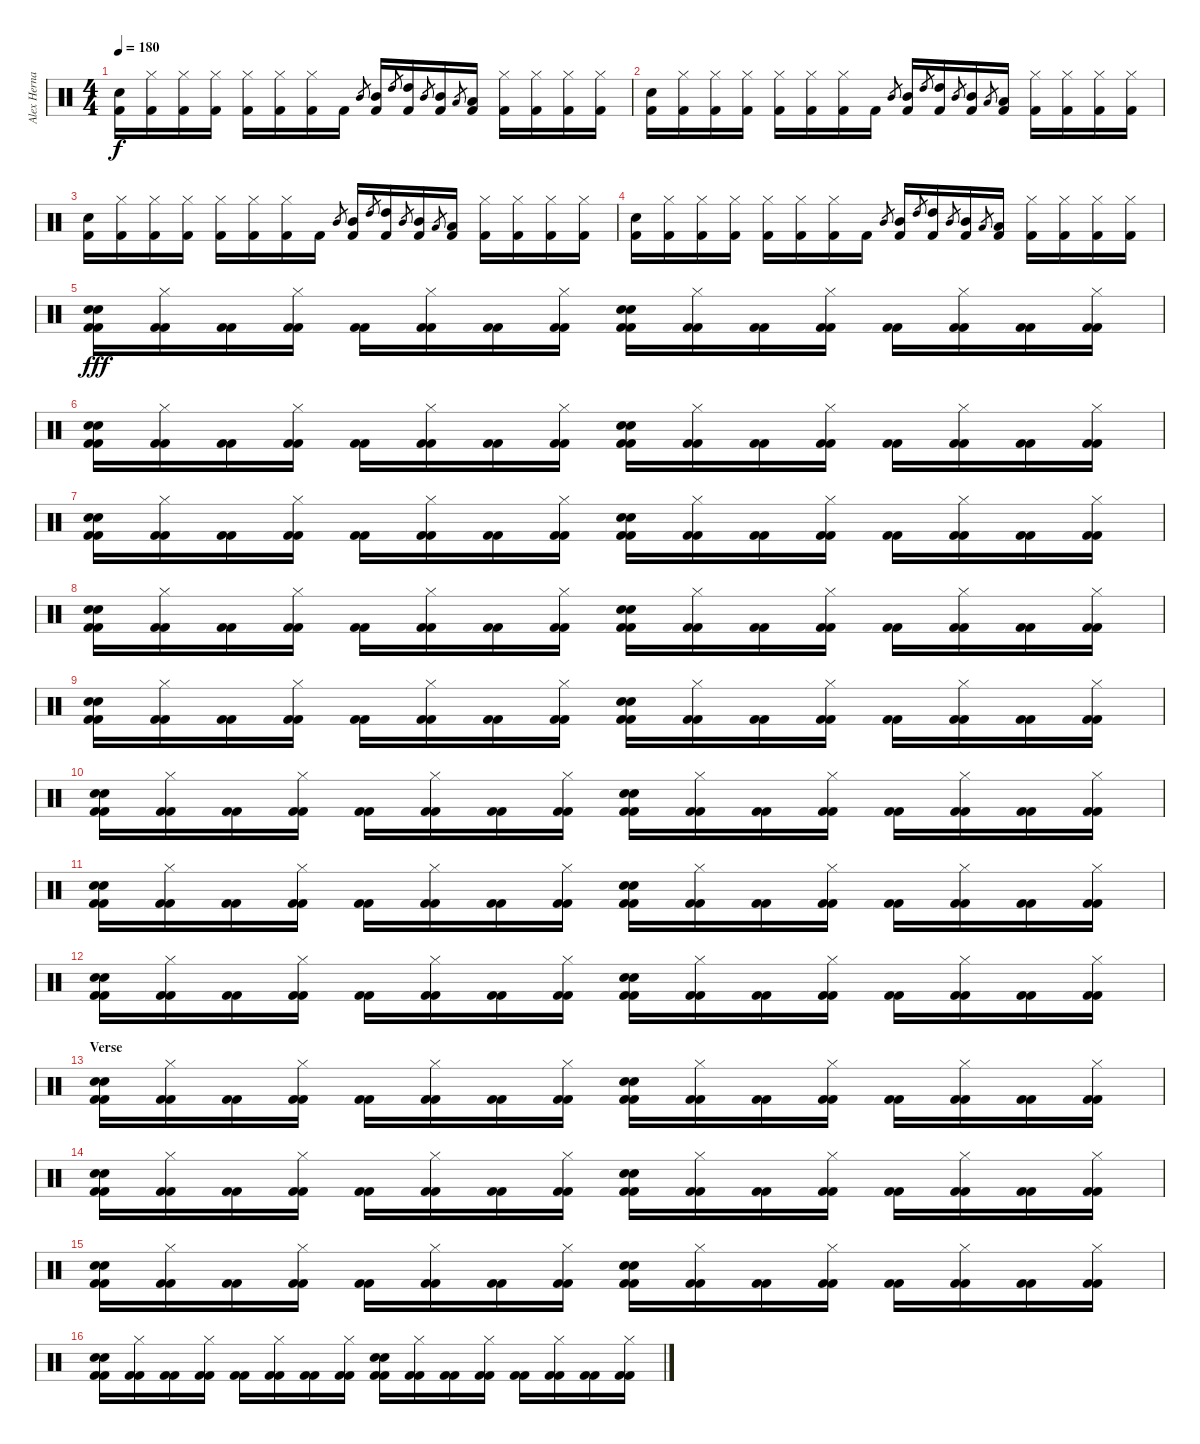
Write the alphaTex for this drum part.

\track ("Alex Hernandez" "Alex Herna") {instrument percussion}
\staff {score}
\articulation defaults
\ts (4 4)
\tempo 180
\clef neutral
\ks c
("Snare (hit) 2" "Kick (hit) 2").16{dy f} ("Hi-Hat (closed)" "Kick (hit) 2").16 ("Hi-Hat (closed)" "Kick (hit) 2").16 ("Hi-Hat (closed)" "Kick (hit) 2").16 ("Hi-Hat (closed)" "Kick (hit) 2").16 ("Hi-Hat (closed)" "Kick (hit) 2").16 ("Hi-Hat (closed)" "Kick (hit) 2").16 "Kick (hit) 2".16 "Mid Tom (hit)".8{gr} ("Mid Tom (hit)" "Kick (hit) 2").16 "High Tom (hit)".8{gr} ("High Tom (hit)" "Kick (hit) 2").16 "Mid Tom (hit)".8{gr} ("Mid Tom (hit)" "Kick (hit) 2").16 "Low Tom (hit)".8{gr} ("Low Tom (hit)" "Kick (hit) 2").16 ("Hi-Hat (closed)" "Kick (hit) 2").16 ("Hi-Hat (closed)" "Kick (hit) 2").16 ("Hi-Hat (closed)" "Kick (hit) 2").16 ("Hi-Hat (closed)" "Kick (hit) 2").16 |
("Snare (hit) 2" "Kick (hit) 2").16 ("Hi-Hat (closed)" "Kick (hit) 2").16 ("Hi-Hat (closed)" "Kick (hit) 2").16 ("Hi-Hat (closed)" "Kick (hit) 2").16 ("Hi-Hat (closed)" "Kick (hit) 2").16 ("Hi-Hat (closed)" "Kick (hit) 2").16 ("Hi-Hat (closed)" "Kick (hit) 2").16 "Kick (hit) 2".16 "Mid Tom (hit)".8{gr} ("Mid Tom (hit)" "Kick (hit) 2").16 "High Tom (hit)".8{gr} ("High Tom (hit)" "Kick (hit) 2").16 "Mid Tom (hit)".8{gr} ("Mid Tom (hit)" "Kick (hit) 2").16 "Low Tom (hit)".8{gr} ("Low Tom (hit)" "Kick (hit) 2").16 ("Hi-Hat (closed)" "Kick (hit) 2").16 ("Hi-Hat (closed)" "Kick (hit) 2").16 ("Hi-Hat (closed)" "Kick (hit) 2").16 ("Hi-Hat (closed)" "Kick (hit) 2").16 |
("Snare (hit) 2" "Kick (hit) 2").16 ("Hi-Hat (closed)" "Kick (hit) 2").16 ("Hi-Hat (closed)" "Kick (hit) 2").16 ("Hi-Hat (closed)" "Kick (hit) 2").16 ("Hi-Hat (closed)" "Kick (hit) 2").16 ("Hi-Hat (closed)" "Kick (hit) 2").16 ("Hi-Hat (closed)" "Kick (hit) 2").16 "Kick (hit) 2".16 "Mid Tom (hit)".8{gr} ("Mid Tom (hit)" "Kick (hit) 2").16 "High Tom (hit)".8{gr} ("High Tom (hit)" "Kick (hit) 2").16 "Mid Tom (hit)".8{gr} ("Mid Tom (hit)" "Kick (hit) 2").16 "Low Tom (hit)".8{gr} ("Low Tom (hit)" "Kick (hit) 2").16 ("Hi-Hat (closed)" "Kick (hit) 2").16 ("Hi-Hat (closed)" "Kick (hit) 2").16 ("Hi-Hat (closed)" "Kick (hit) 2").16 ("Hi-Hat (closed)" "Kick (hit) 2").16 |
("Snare (hit) 2" "Kick (hit) 2").16 ("Hi-Hat (closed)" "Kick (hit) 2").16 ("Hi-Hat (closed)" "Kick (hit) 2").16 ("Hi-Hat (closed)" "Kick (hit) 2").16 ("Hi-Hat (closed)" "Kick (hit) 2").16 ("Hi-Hat (closed)" "Kick (hit) 2").16 ("Hi-Hat (closed)" "Kick (hit) 2").16 "Kick (hit) 2".16 "Mid Tom (hit)".8{gr} ("Mid Tom (hit)" "Kick (hit) 2").16 "High Tom (hit)".8{gr} ("High Tom (hit)" "Kick (hit) 2").16 "Mid Tom (hit)".8{gr} ("Mid Tom (hit)" "Kick (hit) 2").16 "Low Tom (hit)".8{gr} ("Low Tom (hit)" "Kick (hit) 2").16 ("Hi-Hat (closed)" "Kick (hit) 2").16 ("Hi-Hat (closed)" "Kick (hit) 2").16 ("Hi-Hat (closed)" "Kick (hit) 2").16 ("Hi-Hat (closed)" "Kick (hit) 2").16 |
("Snare (hit) 2" "Snare (hit) 2" "Kick (hit) 2" "Kick (hit) 2").16{dy fff} ("Hi-Hat (closed)" "Kick (hit) 2" "Kick (hit) 2").16 ("Kick (hit) 2" "Kick (hit) 2").16 ("Hi-Hat (closed)" "Kick (hit) 2" "Kick (hit) 2").16 ("Kick (hit) 2" "Kick (hit) 2").16 ("Hi-Hat (closed)" "Kick (hit) 2" "Kick (hit) 2").16 ("Kick (hit) 2" "Kick (hit) 2").16 ("Hi-Hat (closed)" "Kick (hit) 2" "Kick (hit) 2").16 ("Snare (hit) 2" "Snare (hit) 2" "Kick (hit) 2" "Kick (hit) 2").16 ("Hi-Hat (closed)" "Kick (hit) 2" "Kick (hit) 2").16 ("Kick (hit) 2" "Kick (hit) 2").16 ("Hi-Hat (closed)" "Kick (hit) 2" "Kick (hit) 2").16 ("Kick (hit) 2" "Kick (hit) 2").16 ("Hi-Hat (closed)" "Kick (hit) 2" "Kick (hit) 2").16 ("Kick (hit) 2" "Kick (hit) 2").16 ("Hi-Hat (closed)" "Kick (hit) 2" "Kick (hit) 2").16 |
("Snare (hit) 2" "Snare (hit) 2" "Kick (hit) 2" "Kick (hit) 2").16 ("Hi-Hat (closed)" "Kick (hit) 2" "Kick (hit) 2").16 ("Kick (hit) 2" "Kick (hit) 2").16 ("Hi-Hat (closed)" "Kick (hit) 2" "Kick (hit) 2").16 ("Kick (hit) 2" "Kick (hit) 2").16 ("Hi-Hat (closed)" "Kick (hit) 2" "Kick (hit) 2").16 ("Kick (hit) 2" "Kick (hit) 2").16 ("Hi-Hat (closed)" "Kick (hit) 2" "Kick (hit) 2").16 ("Snare (hit) 2" "Snare (hit) 2" "Kick (hit) 2" "Kick (hit) 2").16 ("Hi-Hat (closed)" "Kick (hit) 2" "Kick (hit) 2").16 ("Kick (hit) 2" "Kick (hit) 2").16 ("Hi-Hat (closed)" "Kick (hit) 2" "Kick (hit) 2").16 ("Kick (hit) 2" "Kick (hit) 2").16 ("Hi-Hat (closed)" "Kick (hit) 2" "Kick (hit) 2").16 ("Kick (hit) 2" "Kick (hit) 2").16 ("Hi-Hat (closed)" "Kick (hit) 2" "Kick (hit) 2").16 |
("Snare (hit) 2" "Snare (hit) 2" "Kick (hit) 2" "Kick (hit) 2").16 ("Hi-Hat (closed)" "Kick (hit) 2" "Kick (hit) 2").16 ("Kick (hit) 2" "Kick (hit) 2").16 ("Hi-Hat (closed)" "Kick (hit) 2" "Kick (hit) 2").16 ("Kick (hit) 2" "Kick (hit) 2").16 ("Hi-Hat (closed)" "Kick (hit) 2" "Kick (hit) 2").16 ("Kick (hit) 2" "Kick (hit) 2").16 ("Hi-Hat (closed)" "Kick (hit) 2" "Kick (hit) 2").16 ("Snare (hit) 2" "Snare (hit) 2" "Kick (hit) 2" "Kick (hit) 2").16 ("Hi-Hat (closed)" "Kick (hit) 2" "Kick (hit) 2").16 ("Kick (hit) 2" "Kick (hit) 2").16 ("Hi-Hat (closed)" "Kick (hit) 2" "Kick (hit) 2").16 ("Kick (hit) 2" "Kick (hit) 2").16 ("Hi-Hat (closed)" "Kick (hit) 2" "Kick (hit) 2").16 ("Kick (hit) 2" "Kick (hit) 2").16 ("Hi-Hat (closed)" "Kick (hit) 2" "Kick (hit) 2").16 |
("Snare (hit) 2" "Snare (hit) 2" "Kick (hit) 2" "Kick (hit) 2").16 ("Hi-Hat (closed)" "Kick (hit) 2" "Kick (hit) 2").16 ("Kick (hit) 2" "Kick (hit) 2").16 ("Hi-Hat (closed)" "Kick (hit) 2" "Kick (hit) 2").16 ("Kick (hit) 2" "Kick (hit) 2").16 ("Hi-Hat (closed)" "Kick (hit) 2" "Kick (hit) 2").16 ("Kick (hit) 2" "Kick (hit) 2").16 ("Hi-Hat (closed)" "Kick (hit) 2" "Kick (hit) 2").16 ("Snare (hit) 2" "Snare (hit) 2" "Kick (hit) 2" "Kick (hit) 2").16 ("Hi-Hat (closed)" "Kick (hit) 2" "Kick (hit) 2").16 ("Kick (hit) 2" "Kick (hit) 2").16 ("Hi-Hat (closed)" "Kick (hit) 2" "Kick (hit) 2").16 ("Kick (hit) 2" "Kick (hit) 2").16 ("Hi-Hat (closed)" "Kick (hit) 2" "Kick (hit) 2").16 ("Kick (hit) 2" "Kick (hit) 2").16 ("Hi-Hat (closed)" "Kick (hit) 2" "Kick (hit) 2").16 |
("Snare (hit) 2" "Snare (hit) 2" "Kick (hit) 2" "Kick (hit) 2").16 ("Hi-Hat (closed)" "Kick (hit) 2" "Kick (hit) 2").16 ("Kick (hit) 2" "Kick (hit) 2").16 ("Hi-Hat (closed)" "Kick (hit) 2" "Kick (hit) 2").16 ("Kick (hit) 2" "Kick (hit) 2").16 ("Hi-Hat (closed)" "Kick (hit) 2" "Kick (hit) 2").16 ("Kick (hit) 2" "Kick (hit) 2").16 ("Hi-Hat (closed)" "Kick (hit) 2" "Kick (hit) 2").16 ("Snare (hit) 2" "Snare (hit) 2" "Kick (hit) 2" "Kick (hit) 2").16 ("Hi-Hat (closed)" "Kick (hit) 2" "Kick (hit) 2").16 ("Kick (hit) 2" "Kick (hit) 2").16 ("Hi-Hat (closed)" "Kick (hit) 2" "Kick (hit) 2").16 ("Kick (hit) 2" "Kick (hit) 2").16 ("Hi-Hat (closed)" "Kick (hit) 2" "Kick (hit) 2").16 ("Kick (hit) 2" "Kick (hit) 2").16 ("Hi-Hat (closed)" "Kick (hit) 2" "Kick (hit) 2").16 |
("Snare (hit) 2" "Snare (hit) 2" "Kick (hit) 2" "Kick (hit) 2").16 ("Hi-Hat (closed)" "Kick (hit) 2" "Kick (hit) 2").16 ("Kick (hit) 2" "Kick (hit) 2").16 ("Hi-Hat (closed)" "Kick (hit) 2" "Kick (hit) 2").16 ("Kick (hit) 2" "Kick (hit) 2").16 ("Hi-Hat (closed)" "Kick (hit) 2" "Kick (hit) 2").16 ("Kick (hit) 2" "Kick (hit) 2").16 ("Hi-Hat (closed)" "Kick (hit) 2" "Kick (hit) 2").16 ("Snare (hit) 2" "Snare (hit) 2" "Kick (hit) 2" "Kick (hit) 2").16 ("Hi-Hat (closed)" "Kick (hit) 2" "Kick (hit) 2").16 ("Kick (hit) 2" "Kick (hit) 2").16 ("Hi-Hat (closed)" "Kick (hit) 2" "Kick (hit) 2").16 ("Kick (hit) 2" "Kick (hit) 2").16 ("Hi-Hat (closed)" "Kick (hit) 2" "Kick (hit) 2").16 ("Kick (hit) 2" "Kick (hit) 2").16 ("Hi-Hat (closed)" "Kick (hit) 2" "Kick (hit) 2").16 |
("Snare (hit) 2" "Snare (hit) 2" "Kick (hit) 2" "Kick (hit) 2").16 ("Hi-Hat (closed)" "Kick (hit) 2" "Kick (hit) 2").16 ("Kick (hit) 2" "Kick (hit) 2").16 ("Hi-Hat (closed)" "Kick (hit) 2" "Kick (hit) 2").16 ("Kick (hit) 2" "Kick (hit) 2").16 ("Hi-Hat (closed)" "Kick (hit) 2" "Kick (hit) 2").16 ("Kick (hit) 2" "Kick (hit) 2").16 ("Hi-Hat (closed)" "Kick (hit) 2" "Kick (hit) 2").16 ("Snare (hit) 2" "Snare (hit) 2" "Kick (hit) 2" "Kick (hit) 2").16 ("Hi-Hat (closed)" "Kick (hit) 2" "Kick (hit) 2").16 ("Kick (hit) 2" "Kick (hit) 2").16 ("Hi-Hat (closed)" "Kick (hit) 2" "Kick (hit) 2").16 ("Kick (hit) 2" "Kick (hit) 2").16 ("Hi-Hat (closed)" "Kick (hit) 2" "Kick (hit) 2").16 ("Kick (hit) 2" "Kick (hit) 2").16 ("Hi-Hat (closed)" "Kick (hit) 2" "Kick (hit) 2").16 |
("Snare (hit) 2" "Snare (hit) 2" "Kick (hit) 2" "Kick (hit) 2").16 ("Hi-Hat (closed)" "Kick (hit) 2" "Kick (hit) 2").16 ("Kick (hit) 2" "Kick (hit) 2").16 ("Hi-Hat (closed)" "Kick (hit) 2" "Kick (hit) 2").16 ("Kick (hit) 2" "Kick (hit) 2").16 ("Hi-Hat (closed)" "Kick (hit) 2" "Kick (hit) 2").16 ("Kick (hit) 2" "Kick (hit) 2").16 ("Hi-Hat (closed)" "Kick (hit) 2" "Kick (hit) 2").16 ("Snare (hit) 2" "Snare (hit) 2" "Kick (hit) 2" "Kick (hit) 2").16 ("Hi-Hat (closed)" "Kick (hit) 2" "Kick (hit) 2").16 ("Kick (hit) 2" "Kick (hit) 2").16 ("Hi-Hat (closed)" "Kick (hit) 2" "Kick (hit) 2").16 ("Kick (hit) 2" "Kick (hit) 2").16 ("Hi-Hat (closed)" "Kick (hit) 2" "Kick (hit) 2").16 ("Kick (hit) 2" "Kick (hit) 2").16 ("Hi-Hat (closed)" "Kick (hit) 2" "Kick (hit) 2").16 |
\section ("" "Verse")
("Snare (hit) 2" "Snare (hit) 2" "Kick (hit) 2" "Kick (hit) 2").16 ("Hi-Hat (closed)" "Kick (hit) 2" "Kick (hit) 2").16 ("Kick (hit) 2" "Kick (hit) 2").16 ("Hi-Hat (closed)" "Kick (hit) 2" "Kick (hit) 2").16 ("Kick (hit) 2" "Kick (hit) 2").16 ("Hi-Hat (closed)" "Kick (hit) 2" "Kick (hit) 2").16 ("Kick (hit) 2" "Kick (hit) 2").16 ("Hi-Hat (closed)" "Kick (hit) 2" "Kick (hit) 2").16 ("Snare (hit) 2" "Snare (hit) 2" "Kick (hit) 2" "Kick (hit) 2").16 ("Hi-Hat (closed)" "Kick (hit) 2" "Kick (hit) 2").16 ("Kick (hit) 2" "Kick (hit) 2").16 ("Hi-Hat (closed)" "Kick (hit) 2" "Kick (hit) 2").16 ("Kick (hit) 2" "Kick (hit) 2").16 ("Hi-Hat (closed)" "Kick (hit) 2" "Kick (hit) 2").16 ("Kick (hit) 2" "Kick (hit) 2").16 ("Hi-Hat (closed)" "Kick (hit) 2" "Kick (hit) 2").16 |
("Snare (hit) 2" "Snare (hit) 2" "Kick (hit) 2" "Kick (hit) 2").16 ("Hi-Hat (closed)" "Kick (hit) 2" "Kick (hit) 2").16 ("Kick (hit) 2" "Kick (hit) 2").16 ("Hi-Hat (closed)" "Kick (hit) 2" "Kick (hit) 2").16 ("Kick (hit) 2" "Kick (hit) 2").16 ("Hi-Hat (closed)" "Kick (hit) 2" "Kick (hit) 2").16 ("Kick (hit) 2" "Kick (hit) 2").16 ("Hi-Hat (closed)" "Kick (hit) 2" "Kick (hit) 2").16 ("Snare (hit) 2" "Snare (hit) 2" "Kick (hit) 2" "Kick (hit) 2").16 ("Hi-Hat (closed)" "Kick (hit) 2" "Kick (hit) 2").16 ("Kick (hit) 2" "Kick (hit) 2").16 ("Hi-Hat (closed)" "Kick (hit) 2" "Kick (hit) 2").16 ("Kick (hit) 2" "Kick (hit) 2").16 ("Hi-Hat (closed)" "Kick (hit) 2" "Kick (hit) 2").16 ("Kick (hit) 2" "Kick (hit) 2").16 ("Hi-Hat (closed)" "Kick (hit) 2" "Kick (hit) 2").16 |
("Snare (hit) 2" "Snare (hit) 2" "Kick (hit) 2" "Kick (hit) 2").16 ("Hi-Hat (closed)" "Kick (hit) 2" "Kick (hit) 2").16 ("Kick (hit) 2" "Kick (hit) 2").16 ("Hi-Hat (closed)" "Kick (hit) 2" "Kick (hit) 2").16 ("Kick (hit) 2" "Kick (hit) 2").16 ("Hi-Hat (closed)" "Kick (hit) 2" "Kick (hit) 2").16 ("Kick (hit) 2" "Kick (hit) 2").16 ("Hi-Hat (closed)" "Kick (hit) 2" "Kick (hit) 2").16 ("Snare (hit) 2" "Snare (hit) 2" "Kick (hit) 2" "Kick (hit) 2").16 ("Hi-Hat (closed)" "Kick (hit) 2" "Kick (hit) 2").16 ("Kick (hit) 2" "Kick (hit) 2").16 ("Hi-Hat (closed)" "Kick (hit) 2" "Kick (hit) 2").16 ("Kick (hit) 2" "Kick (hit) 2").16 ("Hi-Hat (closed)" "Kick (hit) 2" "Kick (hit) 2").16 ("Kick (hit) 2" "Kick (hit) 2").16 ("Hi-Hat (closed)" "Kick (hit) 2" "Kick (hit) 2").16 |
("Snare (hit) 2" "Snare (hit) 2" "Kick (hit) 2" "Kick (hit) 2").16 ("Hi-Hat (closed)" "Kick (hit) 2" "Kick (hit) 2").16 ("Kick (hit) 2" "Kick (hit) 2").16 ("Hi-Hat (closed)" "Kick (hit) 2" "Kick (hit) 2").16 ("Kick (hit) 2" "Kick (hit) 2").16 ("Hi-Hat (closed)" "Kick (hit) 2" "Kick (hit) 2").16 ("Kick (hit) 2" "Kick (hit) 2").16 ("Hi-Hat (closed)" "Kick (hit) 2" "Kick (hit) 2").16 ("Snare (hit) 2" "Snare (hit) 2" "Kick (hit) 2" "Kick (hit) 2").16 ("Hi-Hat (closed)" "Kick (hit) 2" "Kick (hit) 2").16 ("Kick (hit) 2" "Kick (hit) 2").16 ("Hi-Hat (closed)" "Kick (hit) 2" "Kick (hit) 2").16 ("Kick (hit) 2" "Kick (hit) 2").16 ("Hi-Hat (closed)" "Kick (hit) 2" "Kick (hit) 2").16 ("Kick (hit) 2" "Kick (hit) 2").16 ("Hi-Hat (closed)" "Kick (hit) 2" "Kick (hit) 2").16
